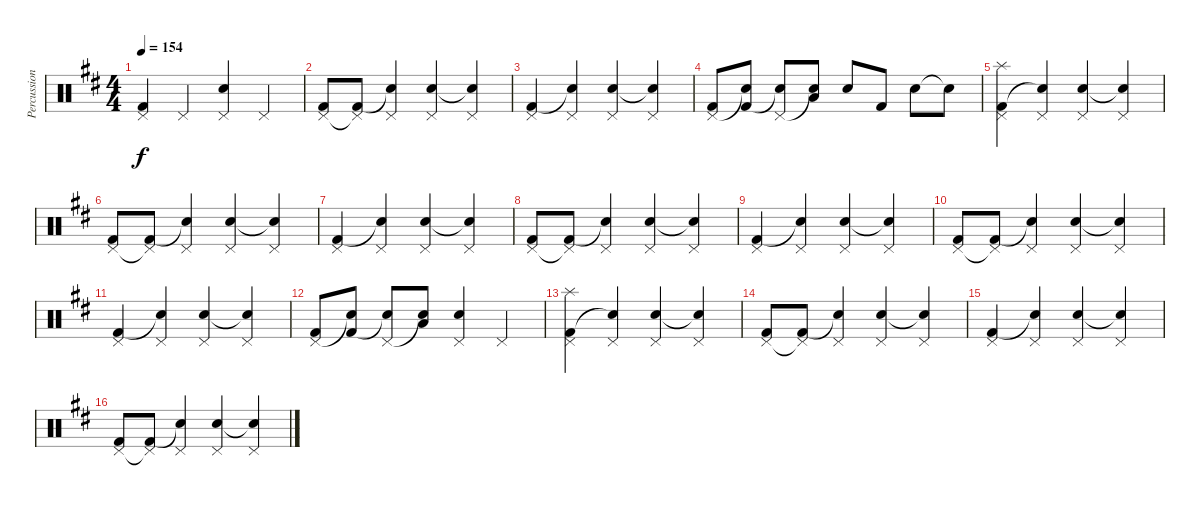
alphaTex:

\track ("Percussion" "Percussion") {instrument percussion}
\staff {score}
\articulation defaults
\ts (4 4)
\tempo 154
\clef neutral
\ks d
("Kick (hit) 2" "Pedal Hi-Hat (hit)").4{dy f} "Pedal Hi-Hat (hit)".4 ("Electric Snare (hit)" "Pedal Hi-Hat (hit)").4 "Pedal Hi-Hat (hit)".4 |
("Kick (hit) 2" "Pedal Hi-Hat (hit)").8 ("Kick (hit) 2" "Pedal Hi-Hat (hit)"{t}).8 ("Snare (hit)"{t} "Pedal Hi-Hat (hit)").4 ("Electric Snare (hit)" "Pedal Hi-Hat (hit)").4 ("Snare (hit) 2"{t} "Pedal Hi-Hat (hit)").4 |
("Kick (hit) 2" "Pedal Hi-Hat (hit)").4 ("Snare (hit)"{t} "Pedal Hi-Hat (hit)").4 ("Electric Snare (hit)" "Pedal Hi-Hat (hit)").4 ("Snare (hit)"{t} "Pedal Hi-Hat (hit)").4 |
("Kick (hit) 2" "Pedal Hi-Hat (hit)").8 ("Kick (hit) 2" "Snare (hit)"{t}).8 ("Snare (hit)"{t} "Pedal Hi-Hat (hit)").8 ("Low Floor Tom (hit)" "Snare (hit)"{t}).8 "Snare (hit) 2".8 "Kick (hit) 2".8 "Snare (hit) 2".8 "Snare (hit)"{t}.8 |
("Kick (hit) 2" "Pedal Hi-Hat (hit)" "Splash (hit)").4 ("Snare (hit)"{t} "Pedal Hi-Hat (hit)").4 ("Electric Snare (hit)" "Pedal Hi-Hat (hit)").4 ("Snare (hit)"{t} "Pedal Hi-Hat (hit)").4 |
("Kick (hit) 2" "Pedal Hi-Hat (hit)").8 ("Kick (hit) 2" "Pedal Hi-Hat (hit)"{t}).8 ("Snare (hit)"{t} "Pedal Hi-Hat (hit)").4 ("Electric Snare (hit)" "Pedal Hi-Hat (hit)").4 ("Snare (hit) 2"{t} "Pedal Hi-Hat (hit)").4 |
("Kick (hit) 2" "Pedal Hi-Hat (hit)").4 ("Snare (hit)"{t} "Pedal Hi-Hat (hit)").4 ("Electric Snare (hit)" "Pedal Hi-Hat (hit)").4 ("Snare (hit)"{t} "Pedal Hi-Hat (hit)").4 |
("Kick (hit) 2" "Pedal Hi-Hat (hit)").8 ("Kick (hit) 2" "Pedal Hi-Hat (hit)"{t}).8 ("Snare (hit)"{t} "Pedal Hi-Hat (hit)").4 ("Electric Snare (hit)" "Pedal Hi-Hat (hit)").4 ("Snare (hit) 2"{t} "Pedal Hi-Hat (hit)").4 |
("Kick (hit) 2" "Pedal Hi-Hat (hit)").4 ("Snare (hit)"{t} "Pedal Hi-Hat (hit)").4 ("Electric Snare (hit)" "Pedal Hi-Hat (hit)").4 ("Snare (hit)"{t} "Pedal Hi-Hat (hit)").4 |
("Kick (hit) 2" "Pedal Hi-Hat (hit)").8 ("Kick (hit) 2" "Pedal Hi-Hat (hit)"{t}).8 ("Snare (hit)"{t} "Pedal Hi-Hat (hit)").4 ("Electric Snare (hit)" "Pedal Hi-Hat (hit)").4 ("Snare (hit) 2"{t} "Pedal Hi-Hat (hit)").4 |
("Kick (hit) 2" "Pedal Hi-Hat (hit)").4 ("Snare (hit)"{t} "Pedal Hi-Hat (hit)").4 ("Electric Snare (hit)" "Pedal Hi-Hat (hit)").4 ("Snare (hit)"{t} "Pedal Hi-Hat (hit)").4 |
("Kick (hit) 2" "Pedal Hi-Hat (hit)").8 ("Kick (hit) 2" "Snare (hit)"{t}).8 ("Snare (hit)"{t} "Pedal Hi-Hat (hit)").8 ("Low Floor Tom (hit)" "Snare (hit)"{t}).8 ("Electric Snare (hit)" "Pedal Hi-Hat (hit)").4 "Pedal Hi-Hat (hit)".4 |
("Kick (hit) 2" "Pedal Hi-Hat (hit)" "Splash (hit)").4 ("Snare (hit)"{t} "Pedal Hi-Hat (hit)").4 ("Snare (hit) 2" "Pedal Hi-Hat (hit)").4 ("Snare (hit)"{t} "Pedal Hi-Hat (hit)").4 |
("Kick (hit) 2" "Pedal Hi-Hat (hit)").8 ("Kick (hit) 2" "Pedal Hi-Hat (hit)"{t}).8 ("Snare (hit)"{t} "Pedal Hi-Hat (hit)").4 ("Electric Snare (hit)" "Pedal Hi-Hat (hit)").4 ("Snare (hit) 2"{t} "Pedal Hi-Hat (hit)").4 |
("Kick (hit) 2" "Pedal Hi-Hat (hit)").4 ("Snare (hit)"{t} "Pedal Hi-Hat (hit)").4 ("Electric Snare (hit)" "Pedal Hi-Hat (hit)").4 ("Snare (hit)"{t} "Pedal Hi-Hat (hit)").4 |
("Kick (hit) 2" "Pedal Hi-Hat (hit)").8 ("Kick (hit) 2" "Pedal Hi-Hat (hit)"{t}).8 ("Snare (hit)"{t} "Pedal Hi-Hat (hit)").4 ("Electric Snare (hit)" "Pedal Hi-Hat (hit)").4 ("Snare (hit) 2"{t} "Pedal Hi-Hat (hit)").4
